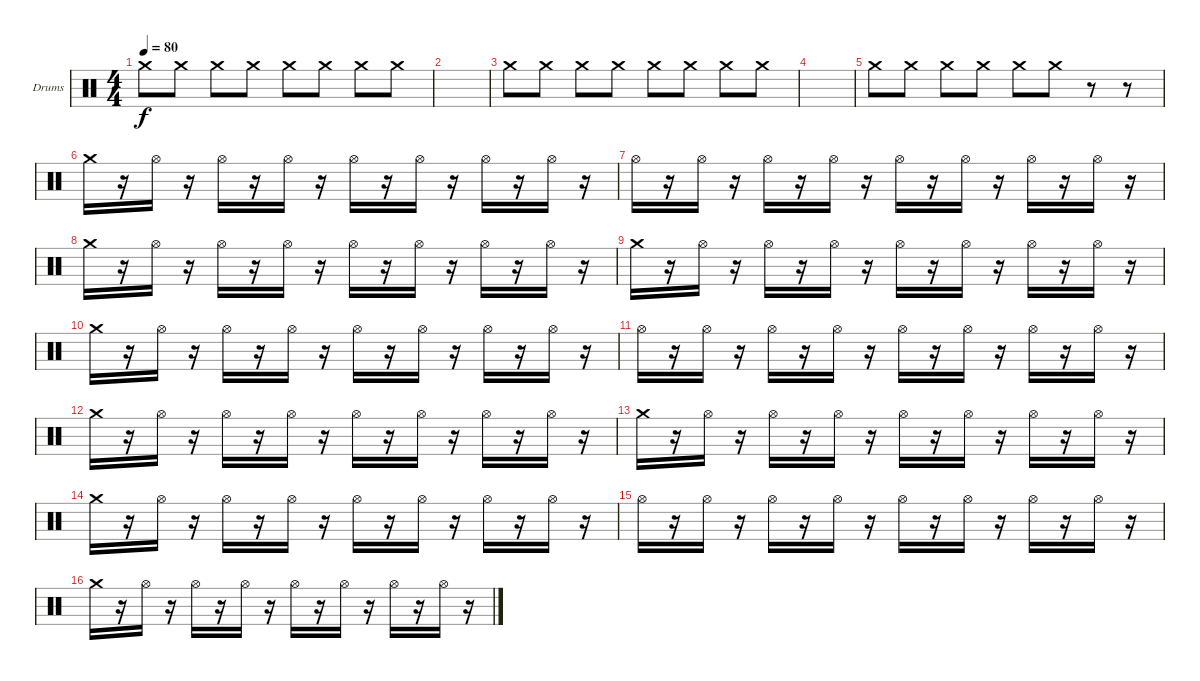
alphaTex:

\bracketExtendMode groupsimilarinstruments
\firstSystemTrackNameOrientation horizontal
\otherSystemsTrackNameOrientation horizontal
\track ("Drumkit" "Drums") {instrument percussion}
\staff {score}
\articulation defaults
\ts (4 4)
\tempo 80
\clef neutral
\scale
0.333333
\ks c "Crash medium (hit)".8{dy f} "Crash medium (hit)".8 "Crash medium (hit)".8 "Crash medium (hit)".8 "Crash medium (hit)".8 "Crash medium (hit)".8 "Crash medium (hit)".8 "Crash medium (hit)".8
|
\scale
0.333333 |
\scale
0.333333 "Crash medium (hit)".8 "Crash medium (hit)".8 "Crash medium (hit)".8 "Crash medium (hit)".8 "Crash medium (hit)".8 "Crash medium (hit)".8 "Crash medium (hit)".8 "Crash medium (hit)".8 |
\scale
0.333333 |
\scale
0.333333 "Crash medium (hit)".8 "Crash medium (hit)".8 "Crash medium (hit)".8 "Crash medium (hit)".8 "Crash medium (hit)".8 "Crash medium (hit)".8 r.8 r.8 |
\scale
0.333333 "Crash medium (hit)".16 r.16 "Hi-Hat (open)".16 r.16 "Hi-Hat (open)".16 r.16 "Hi-Hat (open)".16 r.16 "Hi-Hat (open)".16 r.16 "Hi-Hat (open)".16 r.16 "Hi-Hat (open)".16 r.16 "Hi-Hat (open)".16 r.16 |
\scale
0.333333 "Hi-Hat (open)".16 r.16 "Hi-Hat (open)".16 r.16 "Hi-Hat (open)".16 r.16 "Hi-Hat (open)".16 r.16 "Hi-Hat (open)".16 r.16 "Hi-Hat (open)".16 r.16 "Hi-Hat (open)".16 r.16 "Hi-Hat (open)".16 r.16 |
\scale
0.333333 "Crash medium (hit)".16 r.16 "Hi-Hat (open)".16 r.16 "Hi-Hat (open)".16 r.16 "Hi-Hat (open)".16 r.16 "Hi-Hat (open)".16 r.16 "Hi-Hat (open)".16 r.16 "Hi-Hat (open)".16 r.16 "Hi-Hat (open)".16 r.16 |
\scale
0.333333 "Crash medium (hit)".16 r.16 "Hi-Hat (open)".16 r.16 "Hi-Hat (open)".16 r.16 "Hi-Hat (open)".16 r.16 "Hi-Hat (open)".16 r.16 "Hi-Hat (open)".16 r.16 "Hi-Hat (open)".16 r.16 "Hi-Hat (open)".16 r.16 |
\scale
0.333333 "Crash medium (hit)".16 r.16 "Hi-Hat (open)".16 r.16 "Hi-Hat (open)".16 r.16 "Hi-Hat (open)".16 r.16 "Hi-Hat (open)".16 r.16 "Hi-Hat (open)".16 r.16 "Hi-Hat (open)".16 r.16 "Hi-Hat (open)".16 r.16 |
\scale
0.333333 "Hi-Hat (open)".16 r.16 "Hi-Hat (open)".16 r.16 "Hi-Hat (open)".16 r.16 "Hi-Hat (open)".16 r.16 "Hi-Hat (open)".16 r.16 "Hi-Hat (open)".16 r.16 "Hi-Hat (open)".16 r.16 "Hi-Hat (open)".16 r.16 |
\scale
0.333333 "Crash medium (hit)".16 r.16 "Hi-Hat (open)".16 r.16 "Hi-Hat (open)".16 r.16 "Hi-Hat (open)".16 r.16 "Hi-Hat (open)".16 r.16 "Hi-Hat (open)".16 r.16 "Hi-Hat (open)".16 r.16 "Hi-Hat (open)".16 r.16 |
\scale
0.333333 "Crash medium (hit)".16 r.16 "Hi-Hat (open)".16 r.16 "Hi-Hat (open)".16 r.16 "Hi-Hat (open)".16 r.16 "Hi-Hat (open)".16 r.16 "Hi-Hat (open)".16 r.16 "Hi-Hat (open)".16 r.16 "Hi-Hat (open)".16 r.16 |
\scale
0.333333 "Crash medium (hit)".16 r.16 "Hi-Hat (open)".16 r.16 "Hi-Hat (open)".16 r.16 "Hi-Hat (open)".16 r.16 "Hi-Hat (open)".16 r.16 "Hi-Hat (open)".16 r.16 "Hi-Hat (open)".16 r.16 "Hi-Hat (open)".16 r.16 |
\scale
0.333333 "Hi-Hat (open)".16 r.16 "Hi-Hat (open)".16 r.16 "Hi-Hat (open)".16 r.16 "Hi-Hat (open)".16 r.16 "Hi-Hat (open)".16 r.16 "Hi-Hat (open)".16 r.16 "Hi-Hat (open)".16 r.16 "Hi-Hat (open)".16 r.16 |
\scale
0.333333 "Crash medium (hit)".16 r.16 "Hi-Hat (open)".16 r.16 "Hi-Hat (open)".16 r.16 "Hi-Hat (open)".16 r.16 "Hi-Hat (open)".16 r.16 "Hi-Hat (open)".16 r.16 "Hi-Hat (open)".16 r.16 "Hi-Hat (open)".16 r.16
